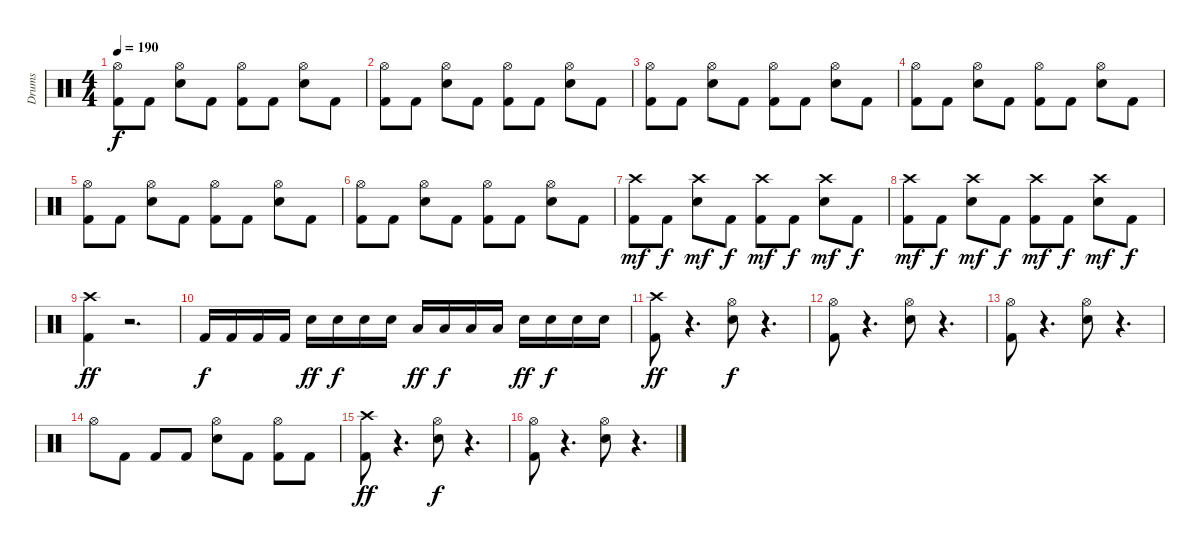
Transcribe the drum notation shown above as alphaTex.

\track ("Drums" "Drums") {instrument percussion}
\staff {score}
\articulation defaults
\ts (4 4)
\tempo 190
\clef neutral
\ks c
("Kick (hit) 2" "Hi-Hat (open)").8{dy f} "Kick (hit) 2".8 ("Snare (hit) 2" "Hi-Hat (open)").8 "Kick (hit) 2".8 ("Kick (hit) 2" "Hi-Hat (open)").8 "Kick (hit) 2".8 ("Snare (hit) 2" "Hi-Hat (open)").8 "Kick (hit) 2".8 |
("Kick (hit) 2" "Hi-Hat (open)").8 "Kick (hit) 2".8 ("Snare (hit) 2" "Hi-Hat (open)").8 "Kick (hit) 2".8 ("Kick (hit) 2" "Hi-Hat (open)").8 "Kick (hit) 2".8 ("Snare (hit) 2" "Hi-Hat (open)").8 "Kick (hit) 2".8 |
("Kick (hit) 2" "Hi-Hat (open)").8 "Kick (hit) 2".8 ("Snare (hit) 2" "Hi-Hat (open)").8 "Kick (hit) 2".8 ("Kick (hit) 2" "Hi-Hat (open)").8 "Kick (hit) 2".8 ("Snare (hit) 2" "Hi-Hat (open)").8 "Kick (hit) 2".8 |
("Kick (hit) 2" "Hi-Hat (open)").8 "Kick (hit) 2".8 ("Snare (hit) 2" "Hi-Hat (open)").8 "Kick (hit) 2".8 ("Kick (hit) 2" "Hi-Hat (open)").8 "Kick (hit) 2".8 ("Snare (hit) 2" "Hi-Hat (open)").8 "Kick (hit) 2".8 |
("Kick (hit) 2" "Hi-Hat (open)").8 "Kick (hit) 2".8 ("Snare (hit) 2" "Hi-Hat (open)").8 "Kick (hit) 2".8 ("Kick (hit) 2" "Hi-Hat (open)").8 "Kick (hit) 2".8 ("Snare (hit) 2" "Hi-Hat (open)").8 "Kick (hit) 2".8 |
("Kick (hit) 2" "Hi-Hat (open)").8 "Kick (hit) 2".8 ("Snare (hit) 2" "Hi-Hat (open)").8 "Kick (hit) 2".8 ("Kick (hit) 2" "Hi-Hat (open)").8 "Kick (hit) 2".8 ("Snare (hit) 2" "Hi-Hat (open)").8 "Kick (hit) 2".8 |
("Kick (hit) 2" "Crash high (hit)").8{dy mf} "Kick (hit) 2".8{dy f} ("Snare (hit) 2" "Crash high (hit)").8{dy mf} "Kick (hit) 2".8{dy f} ("Kick (hit) 2" "Crash high (hit)").8{dy mf} "Kick (hit) 2".8{dy f} ("Snare (hit) 2" "Crash high (hit)").8{dy mf} "Kick (hit) 2".8{dy f} |
("Kick (hit) 2" "Crash high (hit)").8{dy mf} "Kick (hit) 2".8{dy f} ("Snare (hit) 2" "Crash high (hit)").8{dy mf} "Kick (hit) 2".8{dy f} ("Kick (hit) 2" "Crash high (hit)").8{dy mf} "Kick (hit) 2".8{dy f} ("Snare (hit) 2" "Crash high (hit)").8{dy mf} "Kick (hit) 2".8{dy f} |
("Kick (hit) 2" "Crash high (hit)").4{dy ff} r.2{d} |
"Kick (hit) 2".16{dy f} "Kick (hit) 2".16 "Kick (hit) 2".16 "Kick (hit) 2".16 "Snare (hit) 2".16{dy ff} "Snare (hit) 2".16{dy f} "Snare (hit) 2".16 "Snare (hit) 2".16 "Low Tom (hit)".16{dy ff} "Low Tom (hit)".16{dy f} "Low Tom (hit)".16 "Low Tom (hit)".16 "Snare (hit) 2".16{dy ff} "Snare (hit) 2".16{dy f} "Snare (hit) 2".16 "Snare (hit) 2".16 |
("Kick (hit) 2" "Crash high (hit)").8{dy ff} r.4{d} ("Snare (hit) 2" "Hi-Hat (open)").8{dy f} r.4{d} |
("Kick (hit) 2" "Hi-Hat (open)").8 r.4{d} ("Snare (hit) 2" "Hi-Hat (open)").8 r.4{d} |
("Kick (hit) 2" "Hi-Hat (open)").8 r.4{d} ("Snare (hit) 2" "Hi-Hat (open)").8 r.4{d} |
"Hi-Hat (open)".8 "Kick (hit) 2".8 "Kick (hit) 2".8 "Kick (hit) 2".8 ("Snare (hit) 2" "Hi-Hat (open)").8 "Kick (hit) 2".8 ("Kick (hit) 2" "Hi-Hat (open)").8 "Kick (hit) 2".8 |
("Kick (hit) 2" "Crash high (hit)").8{dy ff} r.4{d} ("Snare (hit) 2" "Hi-Hat (open)").8{dy f} r.4{d} |
("Kick (hit) 2" "Hi-Hat (open)").8 r.4{d} ("Snare (hit) 2" "Hi-Hat (open)").8 r.4{d}
